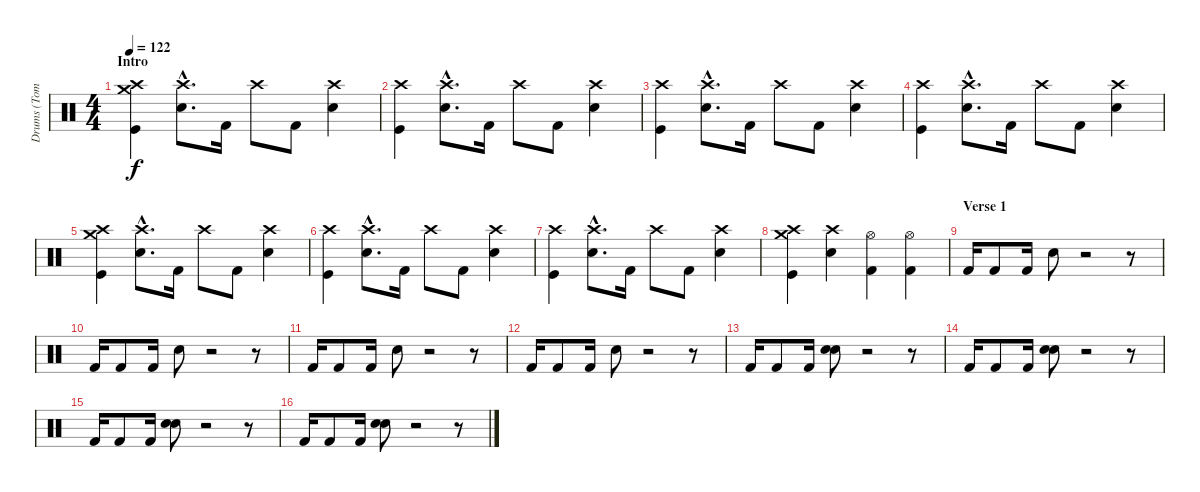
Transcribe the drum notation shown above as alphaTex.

\track ("Drums (Tommy Decker)" "Drums (Tom") {instrument percussion}
\staff {score}
\articulation defaults
\ts (4 4)
\section ("" "Intro")
\tempo 122
\clef neutral
\ks c
("Crash high (hit)" "Crash medium (hit)" "Kick (hit)").4{dy f} ("Crash high (hit)"{hac} "Snare (hit) 2"{hac}).8{d} "Kick (hit) 2".16 "Crash high (hit)".8 "Kick (hit) 2".8 ("Crash high (hit)" "Snare (hit) 2").4 |
("Crash high (hit)" "Kick (hit)").4 ("Crash high (hit)"{hac} "Snare (hit) 2"{hac}).8{d} "Kick (hit) 2".16 "Crash high (hit)".8 "Kick (hit) 2".8 ("Crash high (hit)" "Snare (hit) 2").4 |
("Crash high (hit)" "Kick (hit)").4 ("Crash high (hit)"{hac} "Snare (hit) 2"{hac}).8{d} "Kick (hit) 2".16 "Crash high (hit)".8 "Kick (hit) 2".8 ("Crash high (hit)" "Snare (hit) 2").4 |
("Crash high (hit)" "Kick (hit)").4 ("Crash high (hit)"{hac} "Snare (hit) 2"{hac}).8{d} "Kick (hit) 2".16 "Crash high (hit)".8 "Kick (hit) 2".8 ("Crash high (hit)" "Snare (hit) 2").4 |
("Crash high (hit)" "Crash medium (hit)" "Kick (hit)").4 ("Crash high (hit)"{hac} "Snare (hit) 2"{hac}).8{d} "Kick (hit) 2".16 "Crash high (hit)".8 "Kick (hit) 2".8 ("Crash high (hit)" "Snare (hit) 2").4 |
("Crash high (hit)" "Kick (hit)").4 ("Crash high (hit)"{hac} "Snare (hit) 2"{hac}).8{d} "Kick (hit) 2".16 "Crash high (hit)".8 "Kick (hit) 2".8 ("Crash high (hit)" "Snare (hit) 2").4 |
("Crash high (hit)" "Kick (hit)").4 ("Crash high (hit)"{hac} "Snare (hit) 2"{hac}).8{d} "Kick (hit) 2".16 "Crash high (hit)".8 "Kick (hit) 2".8 ("Crash high (hit)" "Snare (hit) 2").4 |
("Crash high (hit)" "Crash medium (hit)" "Kick (hit)").4 ("Crash high (hit)" "Snare (hit) 2").4 ("Hi-Hat (open)" "Kick (hit) 2").4 ("Hi-Hat (open)" "Kick (hit) 2").4 |
\section ("" "Verse 1")
"Kick (hit) 2".16 "Kick (hit) 2".8 "Kick (hit) 2".16 "Hand Clap (hit)".8 r.2 r.8 |
"Kick (hit) 2".16 "Kick (hit) 2".8 "Kick (hit) 2".16 "Hand Clap (hit)".8 r.2 r.8 |
"Kick (hit) 2".16 "Kick (hit) 2".8 "Kick (hit) 2".16 "Hand Clap (hit)".8 r.2 r.8 |
"Kick (hit) 2".16 "Kick (hit) 2".8 "Kick (hit) 2".16 "Hand Clap (hit)".8 r.2 r.8 |
"Kick (hit) 2".16 "Kick (hit) 2".8 "Kick (hit) 2".16 ("Snare (hit) 2" "Hand Clap (hit)").8 r.2 r.8 |
"Kick (hit) 2".16 "Kick (hit) 2".8 "Kick (hit) 2".16 ("Snare (hit) 2" "Hand Clap (hit)").8 r.2 r.8 |
"Kick (hit) 2".16 "Kick (hit) 2".8 "Kick (hit) 2".16 ("Snare (hit) 2" "Hand Clap (hit)").8 r.2 r.8 |
"Kick (hit) 2".16 "Kick (hit) 2".8 "Kick (hit) 2".16 ("Snare (hit) 2" "Hand Clap (hit)").8 r.2 r.8
